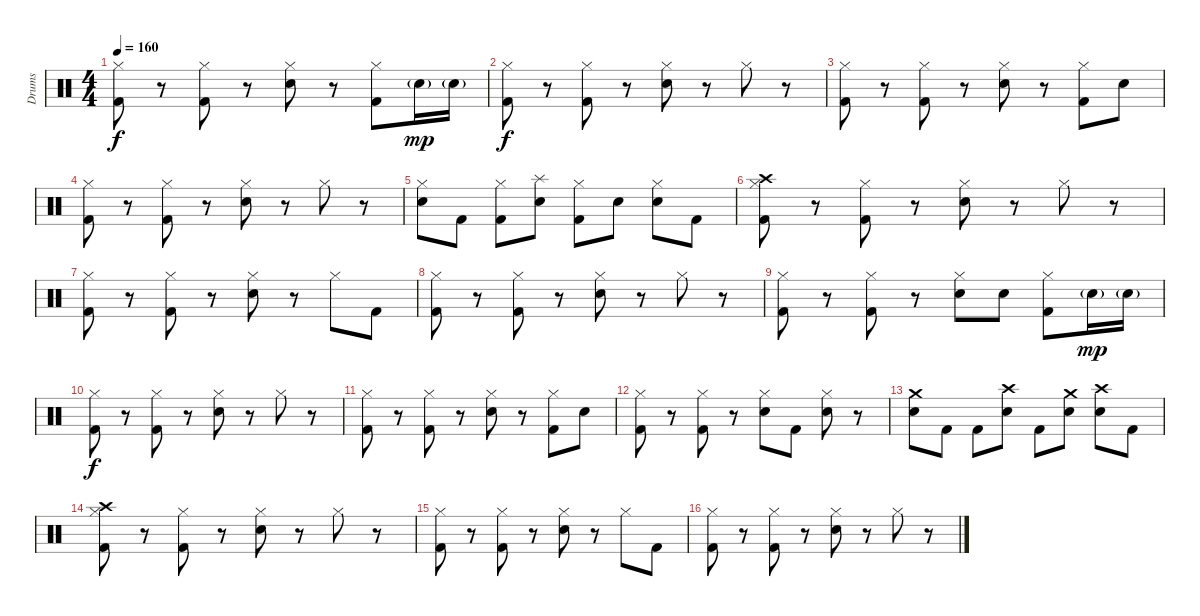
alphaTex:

\track ("Drums" "Drums") {instrument percussion}
\staff {score}
\articulation defaults
\ts (4 4)
\tempo 160
\clef neutral
\ks c
("Hi-Hat (closed)" "Kick (hit) 2").8{dy f} r.8 ("Hi-Hat (closed)" "Kick (hit) 2").8 r.8 ("Hi-Hat (closed)" "Electric Snare (hit)").8 r.8 ("Hi-Hat (closed)" "Kick (hit) 2").8 "Electric Snare (hit)"{g}.16{dy mp} "Electric Snare (hit)"{g}.16 |
("Hi-Hat (closed)" "Kick (hit) 2").8{dy f} r.8 ("Hi-Hat (closed)" "Kick (hit) 2").8 r.8 ("Hi-Hat (closed)" "Electric Snare (hit)").8 r.8 "Hi-Hat (closed)".8 r.8 |
("Hi-Hat (closed)" "Kick (hit) 2").8 r.8 ("Hi-Hat (closed)" "Kick (hit) 2").8 r.8 ("Hi-Hat (closed)" "Electric Snare (hit)").8 r.8 ("Hi-Hat (closed)" "Kick (hit) 2").8 "Electric Snare (hit)".8 |
("Hi-Hat (closed)" "Kick (hit) 2").8 r.8 ("Hi-Hat (closed)" "Kick (hit) 2").8 r.8 ("Hi-Hat (closed)" "Electric Snare (hit)").8 r.8 "Hi-Hat (closed)".8 r.8 |
("Hi-Hat (closed)" "Electric Snare (hit)").8 "Kick (hit) 2".8 ("Hi-Hat (closed)" "Kick (hit) 2").8 ("Splash (hit)" "Electric Snare (hit)").8 ("Hi-Hat (closed)" "Kick (hit) 2").8 "Electric Snare (hit)".8 ("Hi-Hat (closed)" "Electric Snare (hit)").8 "Kick (hit) 2".8 |
("Crash high (hit)" "Hi-Hat (closed)" "Kick (hit) 2").8 r.8 ("Hi-Hat (closed)" "Kick (hit) 2").8 r.8 ("Hi-Hat (closed)" "Electric Snare (hit)").8 r.8 "Hi-Hat (closed)".8 r.8 |
("Hi-Hat (closed)" "Kick (hit) 2").8 r.8 ("Hi-Hat (closed)" "Kick (hit) 2").8 r.8 ("Hi-Hat (closed)" "Electric Snare (hit)").8 r.8 "Hi-Hat (closed)".8 "Kick (hit) 2".8 |
("Hi-Hat (closed)" "Kick (hit) 2").8 r.8 ("Hi-Hat (closed)" "Kick (hit) 2").8 r.8 ("Hi-Hat (closed)" "Electric Snare (hit)").8 r.8 "Hi-Hat (closed)".8 r.8 |
("Hi-Hat (closed)" "Kick (hit) 2").8 r.8 ("Hi-Hat (closed)" "Kick (hit) 2").8 r.8 ("Hi-Hat (closed)" "Electric Snare (hit)").8 "Electric Snare (hit)".8 ("Hi-Hat (closed)" "Kick (hit) 2").8 "Electric Snare (hit)"{g}.16{dy mp} "Electric Snare (hit)"{g}.16 |
("Hi-Hat (closed)" "Kick (hit) 2").8{dy f} r.8 ("Hi-Hat (closed)" "Kick (hit) 2").8 r.8 ("Hi-Hat (closed)" "Electric Snare (hit)").8 r.8 "Hi-Hat (closed)".8 r.8 |
("Hi-Hat (closed)" "Kick (hit) 2").8 r.8 ("Hi-Hat (closed)" "Kick (hit) 2").8 r.8 ("Hi-Hat (closed)" "Electric Snare (hit)").8 r.8 ("Hi-Hat (closed)" "Kick (hit) 2").8 "Electric Snare (hit)".8 |
("Hi-Hat (closed)" "Kick (hit) 2").8 r.8 ("Hi-Hat (closed)" "Kick (hit) 2").8 r.8 ("Hi-Hat (closed)" "Electric Snare (hit)").8 "Kick (hit) 2".8 ("Hi-Hat (closed)" "Electric Snare (hit)").8 r.8 |
("Crash medium (hit)" "Electric Snare (hit)").8 "Kick (hit) 2".8 "Kick (hit) 2".8 ("Crash high (hit)" "Electric Snare (hit)").8 "Kick (hit) 2".8 ("Crash medium (hit)" "Electric Snare (hit)").8 ("Crash high (hit)" "Electric Snare (hit)").8 "Kick (hit) 2".8 |
("Crash high (hit)" "Hi-Hat (closed)" "Kick (hit) 2").8 r.8 ("Hi-Hat (closed)" "Kick (hit) 2").8 r.8 ("Hi-Hat (closed)" "Electric Snare (hit)").8 r.8 "Hi-Hat (closed)".8 r.8 |
("Hi-Hat (closed)" "Kick (hit) 2").8 r.8 ("Hi-Hat (closed)" "Kick (hit) 2").8 r.8 ("Hi-Hat (closed)" "Electric Snare (hit)").8 r.8 "Hi-Hat (closed)".8 "Kick (hit) 2".8 |
("Hi-Hat (closed)" "Kick (hit) 2").8 r.8 ("Hi-Hat (closed)" "Kick (hit) 2").8 r.8 ("Hi-Hat (closed)" "Electric Snare (hit)").8 r.8 "Hi-Hat (closed)".8 r.8
